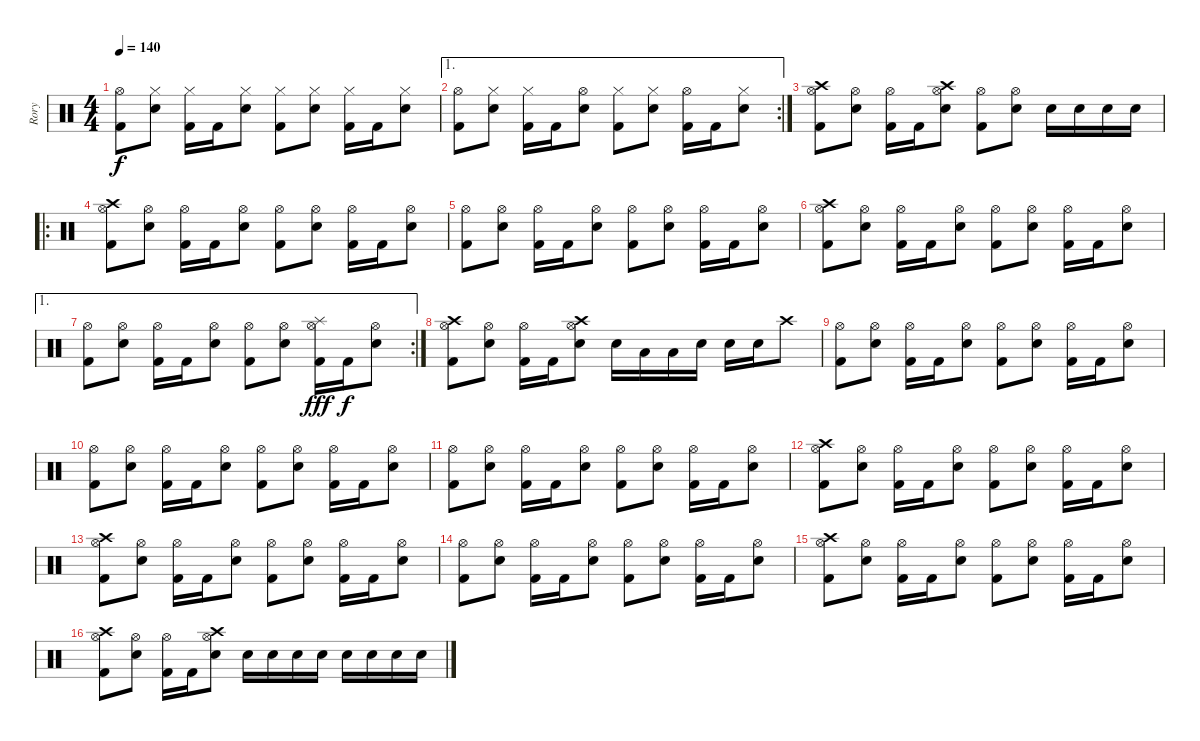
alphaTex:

\track ("Rory" "Rory") {instrument percussion}
\staff {score}
\articulation defaults
\ts (4 4)
\tempo 140
\clef neutral
\ks c
("Hi-Hat (open)" "Kick (hit) 2").8{dy f} ("Hi-Hat (closed)" "Electric Snare (hit)").8 ("Hi-Hat (closed)" "Kick (hit) 2").16 "Kick (hit) 2".16 ("Hi-Hat (closed)" "Electric Snare (hit)").8 ("Hi-Hat (closed)" "Kick (hit) 2").8 ("Hi-Hat (closed)" "Electric Snare (hit)").8 ("Hi-Hat (closed)" "Kick (hit) 2").16 "Kick (hit) 2".16 ("Hi-Hat (closed)" "Electric Snare (hit)").8 |
\ae 1
\rc 2
("Hi-Hat (open)" "Kick (hit) 2").8 ("Hi-Hat (closed)" "Electric Snare (hit)").8 ("Hi-Hat (closed)" "Kick (hit) 2").16 "Kick (hit) 2".16 ("Hi-Hat (open)" "Electric Snare (hit)").8 ("Hi-Hat (closed)" "Kick (hit) 2").8 ("Hi-Hat (closed)" "Electric Snare (hit)").8 ("Hi-Hat (open)" "Kick (hit) 2").16 "Kick (hit) 2".16 ("Hi-Hat (closed)" "Electric Snare (hit)").8 |
("Crash high (hit)" "Hi-Hat (open)" "Kick (hit) 2").8 ("Hi-Hat (open)" "Electric Snare (hit)").8 ("Hi-Hat (open)" "Kick (hit) 2").16 "Kick (hit) 2".16 ("Crash high (hit)" "Hi-Hat (open)" "Electric Snare (hit)").8 ("Hi-Hat (open)" "Kick (hit) 2").8 ("Hi-Hat (open)" "Electric Snare (hit)").8 "Electric Snare (hit)".16 "Electric Snare (hit)".16 "Electric Snare (hit)".16 "Electric Snare (hit)".16 |
\ro
("Crash high (hit)" "Hi-Hat (open)" "Kick (hit) 2").8 ("Hi-Hat (open)" "Electric Snare (hit)").8 ("Hi-Hat (open)" "Kick (hit) 2").16 "Kick (hit) 2".16 ("Hi-Hat (open)" "Electric Snare (hit)").8 ("Hi-Hat (open)" "Kick (hit) 2").8 ("Hi-Hat (open)" "Electric Snare (hit)").8 ("Hi-Hat (open)" "Kick (hit) 2").16 "Kick (hit) 2".16 ("Hi-Hat (open)" "Electric Snare (hit)").8 |
("Hi-Hat (open)" "Kick (hit) 2").8 ("Hi-Hat (open)" "Electric Snare (hit)").8 ("Hi-Hat (open)" "Kick (hit) 2").16 "Kick (hit) 2".16 ("Hi-Hat (open)" "Electric Snare (hit)").8 ("Hi-Hat (open)" "Kick (hit) 2").8 ("Hi-Hat (open)" "Electric Snare (hit)").8 ("Hi-Hat (open)" "Kick (hit) 2").16 "Kick (hit) 2".16 ("Hi-Hat (open)" "Electric Snare (hit)").8 |
("Crash high (hit)" "Hi-Hat (open)" "Kick (hit) 2").8 ("Hi-Hat (open)" "Electric Snare (hit)").8 ("Hi-Hat (open)" "Kick (hit) 2").16 "Kick (hit) 2".16 ("Hi-Hat (open)" "Electric Snare (hit)").8 ("Hi-Hat (open)" "Kick (hit) 2").8 ("Hi-Hat (open)" "Electric Snare (hit)").8 ("Hi-Hat (open)" "Kick (hit) 2").16 "Kick (hit) 2".16 ("Hi-Hat (open)" "Electric Snare (hit)").8 |
\ae 1
\rc 2
("Hi-Hat (open)" "Kick (hit) 2").8 ("Hi-Hat (open)" "Electric Snare (hit)").8 ("Hi-Hat (open)" "Kick (hit) 2").16 "Kick (hit) 2".16 ("Hi-Hat (open)" "Electric Snare (hit)").8 ("Hi-Hat (open)" "Kick (hit) 2").8 ("Hi-Hat (open)" "Electric Snare (hit)").8 ("Splash (hit)" "Hi-Hat (open)" "Kick (hit) 2").16{dy fff} "Kick (hit) 2".16{dy f} ("Hi-Hat (open)" "Electric Snare (hit)").8 |
("Crash high (hit)" "Hi-Hat (open)" "Kick (hit) 2").8 ("Hi-Hat (open)" "Electric Snare (hit)").8 ("Hi-Hat (open)" "Kick (hit) 2").16 "Kick (hit) 2".16 ("Crash high (hit)" "Hi-Hat (open)" "Electric Snare (hit)").8 "Electric Snare (hit)".16 "Low Tom (hit)".16 "Low Tom (hit)".16 "Electric Snare (hit)".16 "Electric Snare (hit)".16 "Electric Snare (hit)".16 "Crash high (hit)".8 |
("Hi-Hat (open)" "Kick (hit) 2").8 ("Hi-Hat (open)" "Electric Snare (hit)").8 ("Hi-Hat (open)" "Kick (hit) 2").16 "Kick (hit) 2".16 ("Hi-Hat (open)" "Electric Snare (hit)").8 ("Hi-Hat (open)" "Kick (hit) 2").8 ("Hi-Hat (open)" "Electric Snare (hit)").8 ("Hi-Hat (open)" "Kick (hit) 2").16 "Kick (hit) 2".16 ("Hi-Hat (open)" "Electric Snare (hit)").8 |
("Hi-Hat (open)" "Kick (hit) 2").8 ("Hi-Hat (open)" "Electric Snare (hit)").8 ("Hi-Hat (open)" "Kick (hit) 2").16 "Kick (hit) 2".16 ("Hi-Hat (open)" "Electric Snare (hit)").8 ("Hi-Hat (open)" "Kick (hit) 2").8 ("Hi-Hat (open)" "Electric Snare (hit)").8 ("Hi-Hat (open)" "Kick (hit) 2").16 "Kick (hit) 2".16 ("Hi-Hat (open)" "Electric Snare (hit)").8 |
("Hi-Hat (open)" "Kick (hit) 2").8 ("Hi-Hat (open)" "Electric Snare (hit)").8 ("Hi-Hat (open)" "Kick (hit) 2").16 "Kick (hit) 2".16 ("Hi-Hat (open)" "Electric Snare (hit)").8 ("Hi-Hat (open)" "Kick (hit) 2").8 ("Hi-Hat (open)" "Electric Snare (hit)").8 ("Hi-Hat (open)" "Kick (hit) 2").16 "Kick (hit) 2".16 ("Hi-Hat (open)" "Electric Snare (hit)").8 |
("Crash high (hit)" "Hi-Hat (open)" "Kick (hit) 2").8 ("Hi-Hat (open)" "Electric Snare (hit)").8 ("Hi-Hat (open)" "Kick (hit) 2").16 "Kick (hit) 2".16 ("Hi-Hat (open)" "Electric Snare (hit)").8 ("Hi-Hat (open)" "Kick (hit) 2").8 ("Hi-Hat (open)" "Electric Snare (hit)").8 ("Hi-Hat (open)" "Kick (hit) 2").16 "Kick (hit) 2".16 ("Hi-Hat (open)" "Electric Snare (hit)").8 |
("Crash high (hit)" "Hi-Hat (open)" "Kick (hit) 2").8 ("Hi-Hat (open)" "Electric Snare (hit)").8 ("Hi-Hat (open)" "Kick (hit) 2").16 "Kick (hit) 2".16 ("Hi-Hat (open)" "Electric Snare (hit)").8 ("Hi-Hat (open)" "Kick (hit) 2").8 ("Hi-Hat (open)" "Electric Snare (hit)").8 ("Hi-Hat (open)" "Kick (hit) 2").16 "Kick (hit) 2".16 ("Hi-Hat (open)" "Electric Snare (hit)").8 |
("Hi-Hat (open)" "Kick (hit) 2").8 ("Hi-Hat (open)" "Electric Snare (hit)").8 ("Hi-Hat (open)" "Kick (hit) 2").16 "Kick (hit) 2".16 ("Hi-Hat (open)" "Electric Snare (hit)").8 ("Hi-Hat (open)" "Kick (hit) 2").8 ("Hi-Hat (open)" "Electric Snare (hit)").8 ("Hi-Hat (open)" "Kick (hit) 2").16 "Kick (hit) 2".16 ("Hi-Hat (open)" "Electric Snare (hit)").8 |
("Crash high (hit)" "Hi-Hat (open)" "Kick (hit) 2").8 ("Hi-Hat (open)" "Electric Snare (hit)").8 ("Hi-Hat (open)" "Kick (hit) 2").16 "Kick (hit) 2".16 ("Hi-Hat (open)" "Electric Snare (hit)").8 ("Hi-Hat (open)" "Kick (hit) 2").8 ("Hi-Hat (open)" "Electric Snare (hit)").8 ("Hi-Hat (open)" "Kick (hit) 2").16 "Kick (hit) 2".16 ("Hi-Hat (open)" "Electric Snare (hit)").8 |
("Crash high (hit)" "Hi-Hat (open)" "Kick (hit) 2").8 ("Hi-Hat (open)" "Electric Snare (hit)").8 ("Hi-Hat (open)" "Kick (hit) 2").16 "Kick (hit) 2".16 ("Crash high (hit)" "Hi-Hat (open)" "Electric Snare (hit)").8 "Electric Snare (hit)".16 "Electric Snare (hit)".16 "Electric Snare (hit)".16 "Electric Snare (hit)".16 "Electric Snare (hit)".16 "Electric Snare (hit)".16 "Electric Snare (hit)".16 "Electric Snare (hit)".16
